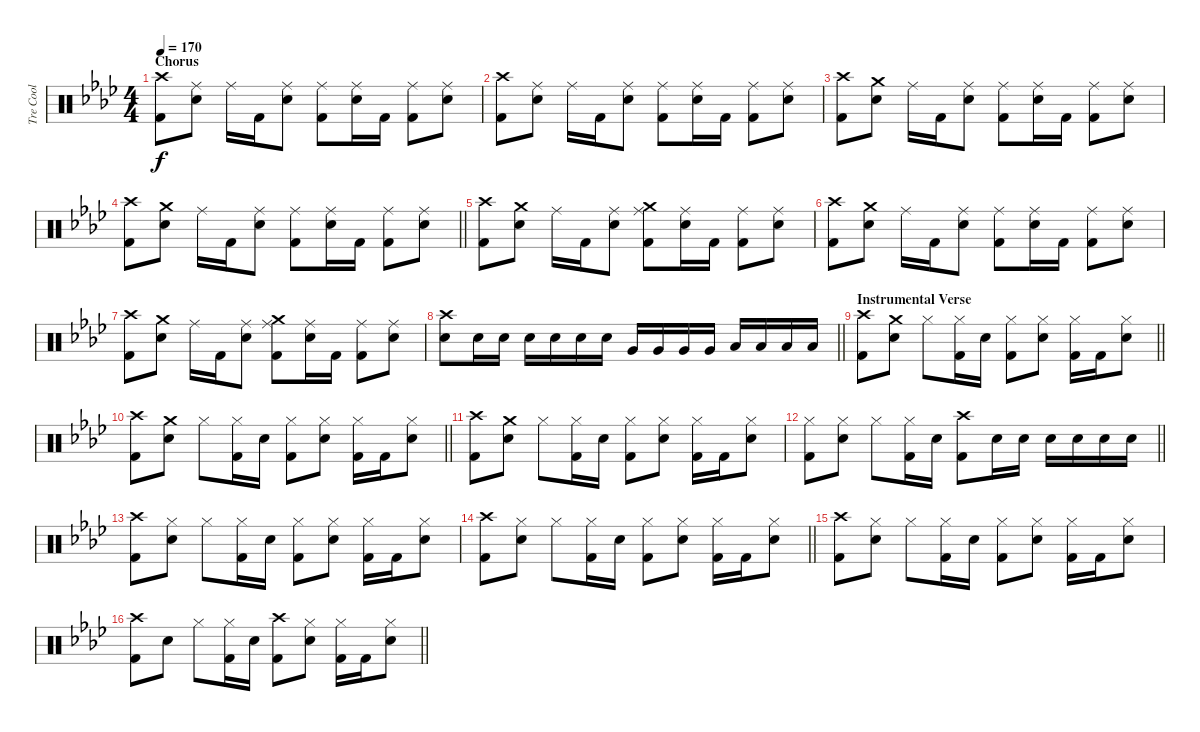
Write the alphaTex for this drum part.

\track ("Tre Cool" "Tre Cool") {instrument percussion}
\staff {score}
\articulation defaults
\ts (4 4)
\section ("" "Chorus")
\tempo 170
\clef neutral
\ks ab
("Crash high (hit)" "Kick (hit) 2").8{dy f} ("Ride (middle)" "Snare (hit) 2").8 "Ride (middle)".16 "Kick (hit) 2".16 ("Ride (middle)" "Snare (hit) 2").8 ("Ride (middle)" "Kick (hit) 2").8 ("Ride (middle)" "Snare (hit) 2").16 "Kick (hit) 2".16 ("Ride (middle)" "Kick (hit) 2").8 ("Ride (middle)" "Snare (hit) 2").8 |
("Crash high (hit)" "Kick (hit) 2").8 ("Ride (middle)" "Snare (hit) 2").8 "Ride (middle)".16 "Kick (hit) 2".16 ("Ride (middle)" "Snare (hit) 2").8 ("Ride (middle)" "Kick (hit) 2").8 ("Ride (middle)" "Snare (hit) 2").16 "Kick (hit) 2".16 ("Ride (middle)" "Kick (hit) 2").8 ("Ride (middle)" "Snare (hit) 2").8 |
("Crash high (hit)" "Kick (hit) 2").8 ("Crash medium (hit)" "Snare (hit) 2").8 "Ride (middle)".16 "Kick (hit) 2".16 ("Ride (middle)" "Snare (hit) 2").8 ("Ride (middle)" "Kick (hit) 2").8 ("Ride (middle)" "Snare (hit) 2").16 "Kick (hit) 2".16 ("Ride (middle)" "Kick (hit) 2").8 ("Ride (middle)" "Snare (hit) 2").8 |
\barLineRight lightlight
("Crash high (hit)" "Kick (hit) 2").8 ("Crash medium (hit)" "Snare (hit) 2").8 "Ride (middle)".16 "Kick (hit) 2".16 ("Ride (middle)" "Snare (hit) 2").8 ("Ride (middle)" "Kick (hit) 2").8 ("Ride (middle)" "Snare (hit) 2").16 "Kick (hit) 2".16 ("Ride (middle)" "Kick (hit) 2").8 ("Ride (middle)" "Snare (hit) 2").8 |
("Crash high (hit)" "Kick (hit) 2").8 ("Crash medium (hit)" "Snare (hit) 2").8 "Ride (middle)".16 "Kick (hit) 2".16 ("Ride (middle)" "Snare (hit) 2").8 ("Crash medium (hit)" "Ride (middle)" "Kick (hit) 2").8 ("Ride (middle)" "Snare (hit) 2").16 "Kick (hit) 2".16 ("Ride (middle)" "Kick (hit) 2").8 ("Ride (middle)" "Snare (hit) 2").8 |
("Crash high (hit)" "Kick (hit) 2").8 ("Crash medium (hit)" "Snare (hit) 2").8 "Ride (middle)".16 "Kick (hit) 2".16 ("Ride (middle)" "Snare (hit) 2").8 ("Ride (middle)" "Kick (hit) 2").8 ("Ride (middle)" "Snare (hit) 2").16 "Kick (hit) 2".16 ("Ride (middle)" "Kick (hit) 2").8 ("Ride (middle)" "Snare (hit) 2").8 |
("Crash high (hit)" "Kick (hit) 2").8 ("Crash medium (hit)" "Snare (hit) 2").8 "Ride (middle)".16 "Kick (hit) 2".16 ("Ride (middle)" "Snare (hit) 2").8 ("Crash medium (hit)" "Ride (middle)" "Kick (hit) 2").8 ("Ride (middle)" "Snare (hit) 2").16 "Kick (hit) 2".16 ("Ride (middle)" "Kick (hit) 2").8 ("Ride (middle)" "Snare (hit) 2").8 |
\barLineRight lightlight
("Snare (hit) 2" "Crash high (hit)").8 "Snare (hit) 2".16 "Snare (hit) 2".16 "Snare (hit) 2".16 "Snare (hit) 2".16 "Snare (hit) 2".16 "Snare (hit) 2".16 "Very Low Tom (hit)".16 "Very Low Tom (hit)".16 "Very Low Tom (hit)".16 "Very Low Tom (hit)".16 "Low Tom (hit)".16 "Low Tom (hit)".16 "Low Tom (hit)".16 "Low Tom (hit)".16 |
\section ("" "Instrumental Verse")
\barLineRight lightlight
("Crash high (hit)" "Kick (hit) 2").8 ("Crash medium (hit)" "Snare (hit) 2").8 "Hi-Hat (closed)".8 ("Hi-Hat (closed)" "Kick (hit) 2").16 "Snare (hit) 2".16 ("Hi-Hat (closed)" "Kick (hit) 2").8 ("Hi-Hat (closed)" "Snare (hit) 2").8 ("Hi-Hat (closed)" "Kick (hit) 2").16 "Kick (hit) 2".16 ("Hi-Hat (closed)" "Snare (hit) 2").8 |
\barLineRight lightlight
("Crash high (hit)" "Kick (hit) 2").8 ("Crash medium (hit)" "Snare (hit) 2").8 "Hi-Hat (closed)".8 ("Hi-Hat (closed)" "Kick (hit) 2").16 "Snare (hit) 2".16 ("Hi-Hat (closed)" "Kick (hit) 2").8 ("Hi-Hat (closed)" "Snare (hit) 2").8 ("Hi-Hat (closed)" "Kick (hit) 2").16 "Kick (hit) 2".16 ("Hi-Hat (closed)" "Snare (hit) 2").8 |
("Crash high (hit)" "Kick (hit) 2").8 ("Crash medium (hit)" "Snare (hit) 2").8 "Hi-Hat (closed)".8 ("Hi-Hat (closed)" "Kick (hit) 2").16 "Snare (hit) 2".16 ("Hi-Hat (closed)" "Kick (hit) 2").8 ("Hi-Hat (closed)" "Snare (hit) 2").8 ("Hi-Hat (closed)" "Kick (hit) 2").16 "Kick (hit) 2".16 ("Hi-Hat (closed)" "Snare (hit) 2").8 |
\barLineRight lightlight
("Hi-Hat (closed)" "Kick (hit) 2").8 ("Hi-Hat (closed)" "Snare (hit) 2").8 "Hi-Hat (closed)".8 ("Hi-Hat (closed)" "Kick (hit) 2").16 "Snare (hit) 2".16 ("Crash high (hit)" "Kick (hit) 2").8 "Snare (hit) 2".16 "Snare (hit) 2".16 "Snare (hit) 2".16 "Snare (hit) 2".16 "Snare (hit) 2".16 "Snare (hit) 2".16 |
("Crash high (hit)" "Kick (hit) 2").8 ("Hi-Hat (closed)" "Snare (hit) 2").8 "Hi-Hat (closed)".8 ("Hi-Hat (closed)" "Kick (hit) 2").16 "Snare (hit) 2".16 ("Hi-Hat (closed)" "Kick (hit) 2").8 ("Hi-Hat (closed)" "Snare (hit) 2").8 ("Hi-Hat (closed)" "Kick (hit) 2").16 "Kick (hit) 2".16 ("Hi-Hat (closed)" "Snare (hit) 2").8 |
\barLineRight lightlight
("Crash high (hit)" "Kick (hit) 2").8 ("Hi-Hat (closed)" "Snare (hit) 2").8 "Hi-Hat (closed)".8 ("Hi-Hat (closed)" "Kick (hit) 2").16 "Snare (hit) 2".16 ("Hi-Hat (closed)" "Kick (hit) 2").8 ("Hi-Hat (closed)" "Snare (hit) 2").8 ("Hi-Hat (closed)" "Kick (hit) 2").16 "Kick (hit) 2".16 ("Hi-Hat (closed)" "Snare (hit) 2").8 |
("Crash high (hit)" "Kick (hit) 2").8 ("Hi-Hat (closed)" "Snare (hit) 2").8 "Hi-Hat (closed)".8 ("Hi-Hat (closed)" "Kick (hit) 2").16 "Snare (hit) 2".16 ("Hi-Hat (closed)" "Kick (hit) 2").8 ("Hi-Hat (closed)" "Snare (hit) 2").8 ("Hi-Hat (closed)" "Kick (hit) 2").16 "Kick (hit) 2".16 ("Hi-Hat (closed)" "Snare (hit) 2").8 |
\barLineRight lightlight
("Crash high (hit)" "Kick (hit) 2").8 "Snare (hit) 2".8 "Hi-Hat (closed)".8 ("Hi-Hat (closed)" "Kick (hit) 2").16 "Snare (hit) 2".16 ("Crash high (hit)" "Kick (hit) 2").8 ("Hi-Hat (closed)" "Snare (hit) 2").8 ("Hi-Hat (closed)" "Kick (hit) 2").16 "Kick (hit) 2".16 ("Hi-Hat (closed)" "Snare (hit) 2").8
